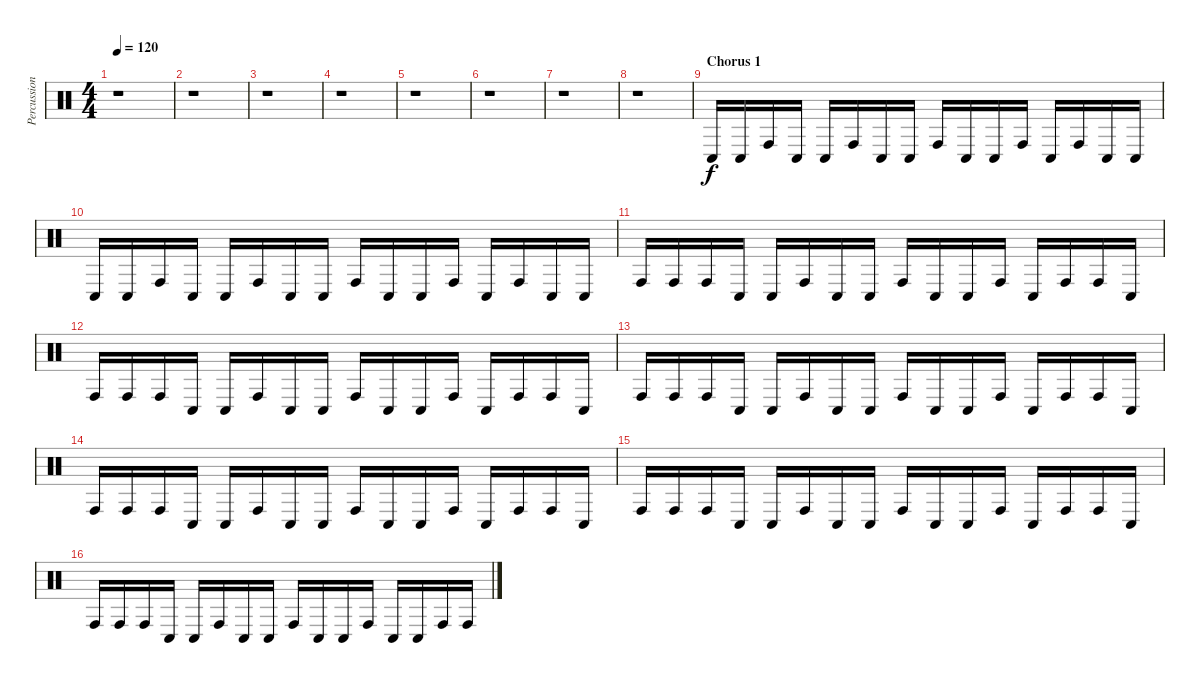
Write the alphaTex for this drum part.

\track ("Percussions" "Percussion") {instrument percussion}
\staff {score}
\articulation defaults
\ts (4 4)
\tempo 120
\clef neutral
\ks c
r.1{dy f} |
r.1 |
r.1 |
r.1 |
r.1 |
r.1 |
r.1 |
r.1 |
\section ("" "Chorus 1")
"Conga low (hit)".16 "Conga low (hit)".16 "Conga high (hit)".16 "Conga low (hit)".16 "Conga low (hit)".16 "Conga high (hit)".16 "Conga low (hit)".16 "Conga low (hit)".16 "Conga high (hit)".16 "Conga low (hit)".16 "Conga low (hit)".16 "Conga high (hit)".16 "Conga low (hit)".16 "Conga high (hit)".16 "Conga low (hit)".16 "Conga low (hit)".16 |
"Conga low (hit)".16 "Conga low (hit)".16 "Conga high (hit)".16 "Conga low (hit)".16 "Conga low (hit)".16 "Conga high (hit)".16 "Conga low (hit)".16 "Conga low (hit)".16 "Conga high (hit)".16 "Conga low (hit)".16 "Conga low (hit)".16 "Conga high (hit)".16 "Conga low (hit)".16 "Conga high (hit)".16 "Conga low (hit)".16 "Conga low (hit)".16 |
"Conga high (hit)".16 "Conga high (hit)".16 "Conga high (hit)".16 "Conga low (hit)".16 "Conga low (hit)".16 "Conga high (hit)".16 "Conga low (hit)".16 "Conga low (hit)".16 "Conga high (hit)".16 "Conga low (hit)".16 "Conga low (hit)".16 "Conga high (hit)".16 "Conga low (hit)".16 "Conga high (hit)".16 "Conga high (hit)".16 "Conga low (hit)".16 |
"Conga high (hit)".16 "Conga high (hit)".16 "Conga high (hit)".16 "Conga low (hit)".16 "Conga low (hit)".16 "Conga high (hit)".16 "Conga low (hit)".16 "Conga low (hit)".16 "Conga high (hit)".16 "Conga low (hit)".16 "Conga low (hit)".16 "Conga high (hit)".16 "Conga low (hit)".16 "Conga high (hit)".16 "Conga high (hit)".16 "Conga low (hit)".16 |
"Conga high (hit)".16 "Conga high (hit)".16 "Conga high (hit)".16 "Conga low (hit)".16 "Conga low (hit)".16 "Conga high (hit)".16 "Conga low (hit)".16 "Conga low (hit)".16 "Conga high (hit)".16 "Conga low (hit)".16 "Conga low (hit)".16 "Conga high (hit)".16 "Conga low (hit)".16 "Conga high (hit)".16 "Conga high (hit)".16 "Conga low (hit)".16 |
"Conga high (hit)".16 "Conga high (hit)".16 "Conga high (hit)".16 "Conga low (hit)".16 "Conga low (hit)".16 "Conga high (hit)".16 "Conga low (hit)".16 "Conga low (hit)".16 "Conga high (hit)".16 "Conga low (hit)".16 "Conga low (hit)".16 "Conga high (hit)".16 "Conga low (hit)".16 "Conga high (hit)".16 "Conga high (hit)".16 "Conga low (hit)".16 |
"Conga high (hit)".16 "Conga high (hit)".16 "Conga high (hit)".16 "Conga low (hit)".16 "Conga low (hit)".16 "Conga high (hit)".16 "Conga low (hit)".16 "Conga low (hit)".16 "Conga high (hit)".16 "Conga low (hit)".16 "Conga low (hit)".16 "Conga high (hit)".16 "Conga low (hit)".16 "Conga high (hit)".16 "Conga high (hit)".16 "Conga low (hit)".16 |
"Conga high (hit)".16 "Conga high (hit)".16 "Conga high (hit)".16 "Conga low (hit)".16 "Conga low (hit)".16 "Conga high (hit)".16 "Conga low (hit)".16 "Conga low (hit)".16 "Conga high (hit)".16 "Conga low (hit)".16 "Conga low (hit)".16 "Conga high (hit)".16 "Conga low (hit)".16 "Conga low (hit)".16 "Conga high (hit)".16 "Conga high (hit)".16
